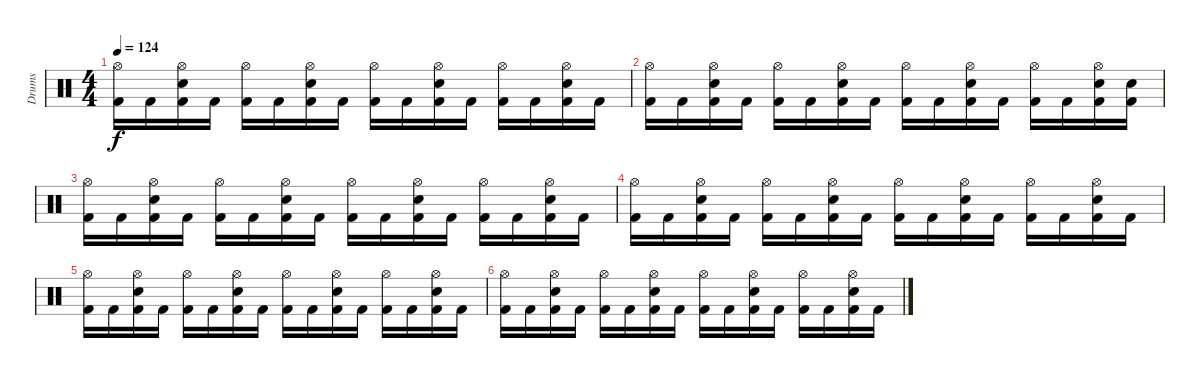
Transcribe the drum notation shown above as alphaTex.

\track ("Drums" "Drums") {instrument percussion}
\staff {score}
\articulation defaults
\ts (4 4)
\tempo 124
\clef neutral
\ks c
("Hi-Hat (open)" "Kick (hit) 2").16{dy f} "Kick (hit) 2".16 ("Snare (hit) 2" "Kick (hit) 2" "Hi-Hat (open)").16 "Kick (hit) 2".16 ("Hi-Hat (open)" "Kick (hit) 2").16 "Kick (hit) 2".16 ("Snare (hit) 2" "Kick (hit) 2" "Hi-Hat (open)").16 "Kick (hit) 2".16 ("Hi-Hat (open)" "Kick (hit) 2").16 "Kick (hit) 2".16 ("Snare (hit) 2" "Kick (hit) 2" "Hi-Hat (open)").16 "Kick (hit) 2".16 ("Hi-Hat (open)" "Kick (hit) 2").16 "Kick (hit) 2".16 ("Snare (hit) 2" "Kick (hit) 2" "Hi-Hat (open)").16 "Kick (hit) 2".16 |
("Hi-Hat (open)" "Kick (hit) 2").16 "Kick (hit) 2".16 ("Snare (hit) 2" "Kick (hit) 2" "Hi-Hat (open)").16 "Kick (hit) 2".16 ("Hi-Hat (open)" "Kick (hit) 2").16 "Kick (hit) 2".16 ("Snare (hit) 2" "Kick (hit) 2" "Hi-Hat (open)").16 "Kick (hit) 2".16 ("Hi-Hat (open)" "Kick (hit) 2").16 "Kick (hit) 2".16 ("Snare (hit) 2" "Kick (hit) 2" "Hi-Hat (open)").16 "Kick (hit) 2".16 ("Hi-Hat (open)" "Kick (hit) 2").16 "Kick (hit) 2".16 ("Snare (hit) 2" "Kick (hit) 2" "Hi-Hat (open)").16 ("Electric Snare (hit)" "Kick (hit) 2").16 |
("Hi-Hat (open)" "Kick (hit) 2").16 "Kick (hit) 2".16 ("Snare (hit) 2" "Kick (hit) 2" "Hi-Hat (open)").16 "Kick (hit) 2".16 ("Hi-Hat (open)" "Kick (hit) 2").16 "Kick (hit) 2".16 ("Snare (hit) 2" "Kick (hit) 2" "Hi-Hat (open)").16 "Kick (hit) 2".16 ("Hi-Hat (open)" "Kick (hit) 2").16 "Kick (hit) 2".16 ("Snare (hit) 2" "Kick (hit) 2" "Hi-Hat (open)").16 "Kick (hit) 2".16 ("Hi-Hat (open)" "Kick (hit) 2").16 "Kick (hit) 2".16 ("Snare (hit) 2" "Kick (hit) 2" "Hi-Hat (open)").16 "Kick (hit) 2".16 |
("Hi-Hat (open)" "Kick (hit) 2").16 "Kick (hit) 2".16 ("Snare (hit) 2" "Kick (hit) 2" "Hi-Hat (open)").16 "Kick (hit) 2".16 ("Hi-Hat (open)" "Kick (hit) 2").16 "Kick (hit) 2".16 ("Snare (hit) 2" "Kick (hit) 2" "Hi-Hat (open)").16 "Kick (hit) 2".16 ("Hi-Hat (open)" "Kick (hit) 2").16 "Kick (hit) 2".16 ("Snare (hit) 2" "Kick (hit) 2" "Hi-Hat (open)").16 "Kick (hit) 2".16 ("Hi-Hat (open)" "Kick (hit) 2").16 "Kick (hit) 2".16 ("Snare (hit) 2" "Kick (hit) 2" "Hi-Hat (open)").16 "Kick (hit) 2".16 |
("Hi-Hat (open)" "Kick (hit) 2").16 "Kick (hit) 2".16 ("Snare (hit) 2" "Kick (hit) 2" "Hi-Hat (open)").16 "Kick (hit) 2".16 ("Hi-Hat (open)" "Kick (hit) 2").16 "Kick (hit) 2".16 ("Snare (hit) 2" "Kick (hit) 2" "Hi-Hat (open)").16 "Kick (hit) 2".16 ("Hi-Hat (open)" "Kick (hit) 2").16 "Kick (hit) 2".16 ("Snare (hit) 2" "Kick (hit) 2" "Hi-Hat (open)").16 "Kick (hit) 2".16 ("Hi-Hat (open)" "Kick (hit) 2").16 "Kick (hit) 2".16 ("Snare (hit) 2" "Kick (hit) 2" "Hi-Hat (open)").16 "Kick (hit) 2".16 |
("Hi-Hat (open)" "Kick (hit) 2").16 "Kick (hit) 2".16 ("Snare (hit) 2" "Kick (hit) 2" "Hi-Hat (open)").16 "Kick (hit) 2".16 ("Hi-Hat (open)" "Kick (hit) 2").16 "Kick (hit) 2".16 ("Snare (hit) 2" "Kick (hit) 2" "Hi-Hat (open)").16 "Kick (hit) 2".16 ("Hi-Hat (open)" "Kick (hit) 2").16 "Kick (hit) 2".16 ("Snare (hit) 2" "Kick (hit) 2" "Hi-Hat (open)").16 "Kick (hit) 2".16 ("Hi-Hat (open)" "Kick (hit) 2").16 "Kick (hit) 2".16 ("Snare (hit) 2" "Kick (hit) 2" "Hi-Hat (open)").16 "Kick (hit) 2".16
